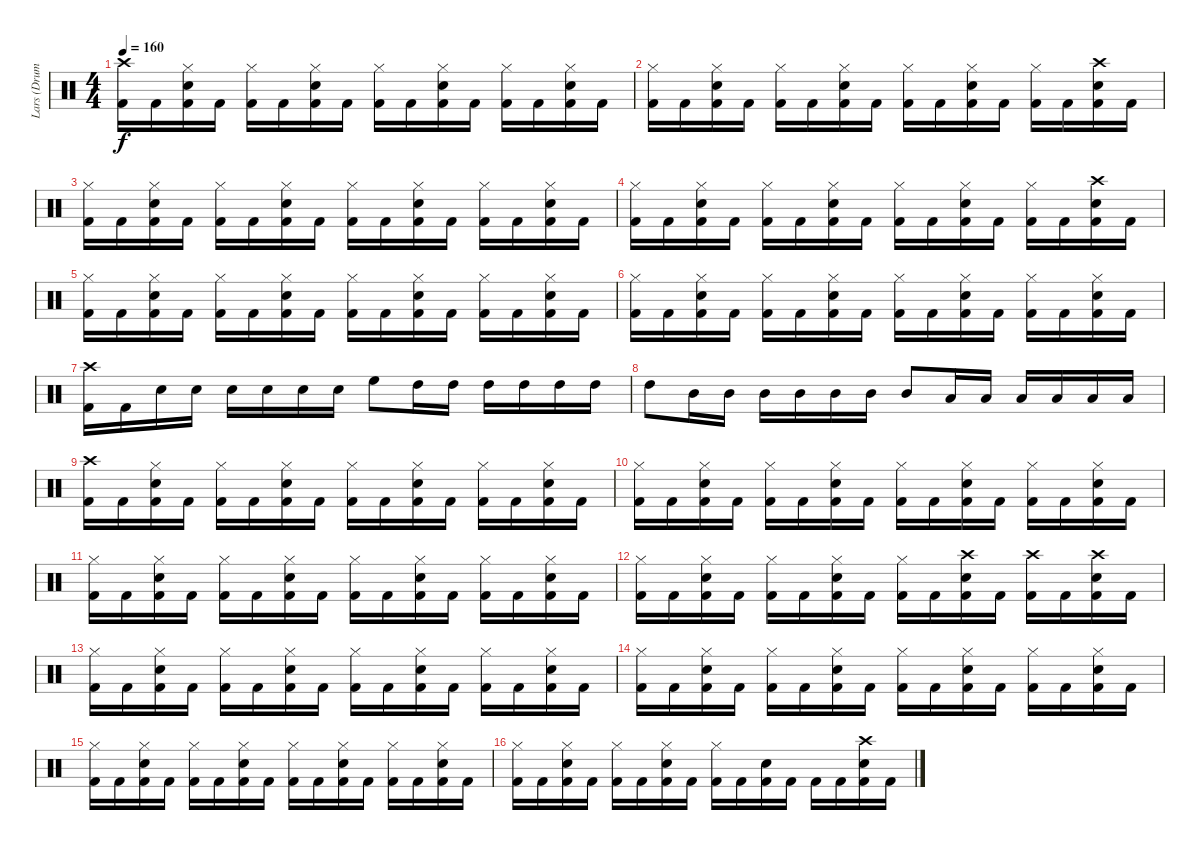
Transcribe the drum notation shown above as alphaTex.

\track ("Lars (Drums)" "Lars (Drum") {instrument percussion}
\staff {score}
\articulation defaults
\ts (4 4)
\tempo 160
\clef neutral
\ks c
("Crash high (hit)" "Kick (hit) 2").16{dy f} "Kick (hit) 2".16 ("Hi-Hat (closed)" "Kick (hit) 2" "Snare (hit) 2").16 "Kick (hit) 2".16 ("Hi-Hat (closed)" "Kick (hit) 2").16 "Kick (hit) 2".16 ("Hi-Hat (closed)" "Kick (hit) 2" "Snare (hit) 2").16 "Kick (hit) 2".16 ("Hi-Hat (closed)" "Kick (hit) 2").16 "Kick (hit) 2".16 ("Hi-Hat (closed)" "Kick (hit) 2" "Snare (hit) 2").16 "Kick (hit) 2".16 ("Hi-Hat (closed)" "Kick (hit) 2").16 "Kick (hit) 2".16 ("Hi-Hat (closed)" "Kick (hit) 2" "Snare (hit) 2").16 "Kick (hit) 2".16 |
("Hi-Hat (closed)" "Kick (hit) 2").16 "Kick (hit) 2".16 ("Hi-Hat (closed)" "Kick (hit) 2" "Snare (hit) 2").16 "Kick (hit) 2".16 ("Hi-Hat (closed)" "Kick (hit) 2").16 "Kick (hit) 2".16 ("Hi-Hat (closed)" "Kick (hit) 2" "Snare (hit) 2").16 "Kick (hit) 2".16 ("Hi-Hat (closed)" "Kick (hit) 2").16 "Kick (hit) 2".16 ("Hi-Hat (closed)" "Kick (hit) 2" "Snare (hit) 2").16 "Kick (hit) 2".16 ("Hi-Hat (closed)" "Kick (hit) 2").16 "Kick (hit) 2".16 ("Crash high (hit)" "Kick (hit) 2" "Snare (hit) 2").16 "Kick (hit) 2".16 |
("Hi-Hat (closed)" "Kick (hit) 2").16 "Kick (hit) 2".16 ("Hi-Hat (closed)" "Kick (hit) 2" "Snare (hit) 2").16 "Kick (hit) 2".16 ("Hi-Hat (closed)" "Kick (hit) 2").16 "Kick (hit) 2".16 ("Hi-Hat (closed)" "Kick (hit) 2" "Snare (hit) 2").16 "Kick (hit) 2".16 ("Hi-Hat (closed)" "Kick (hit) 2").16 "Kick (hit) 2".16 ("Hi-Hat (closed)" "Kick (hit) 2" "Snare (hit) 2").16 "Kick (hit) 2".16 ("Hi-Hat (closed)" "Kick (hit) 2").16 "Kick (hit) 2".16 ("Hi-Hat (closed)" "Kick (hit) 2" "Snare (hit) 2").16 "Kick (hit) 2".16 |
("Hi-Hat (closed)" "Kick (hit) 2").16 "Kick (hit) 2".16 ("Hi-Hat (closed)" "Kick (hit) 2" "Snare (hit) 2").16 "Kick (hit) 2".16 ("Hi-Hat (closed)" "Kick (hit) 2").16 "Kick (hit) 2".16 ("Hi-Hat (closed)" "Kick (hit) 2" "Snare (hit) 2").16 "Kick (hit) 2".16 ("Hi-Hat (closed)" "Kick (hit) 2").16 "Kick (hit) 2".16 ("Hi-Hat (closed)" "Kick (hit) 2" "Snare (hit) 2").16 "Kick (hit) 2".16 ("Hi-Hat (closed)" "Kick (hit) 2").16 "Kick (hit) 2".16 ("Crash high (hit)" "Kick (hit) 2" "Snare (hit) 2").16 "Kick (hit) 2".16 |
("Hi-Hat (closed)" "Kick (hit) 2").16 "Kick (hit) 2".16 ("Hi-Hat (closed)" "Kick (hit) 2" "Snare (hit) 2").16 "Kick (hit) 2".16 ("Hi-Hat (closed)" "Kick (hit) 2").16 "Kick (hit) 2".16 ("Hi-Hat (closed)" "Kick (hit) 2" "Snare (hit) 2").16 "Kick (hit) 2".16 ("Hi-Hat (closed)" "Kick (hit) 2").16 "Kick (hit) 2".16 ("Hi-Hat (closed)" "Kick (hit) 2" "Snare (hit) 2").16 "Kick (hit) 2".16 ("Hi-Hat (closed)" "Kick (hit) 2").16 "Kick (hit) 2".16 ("Hi-Hat (closed)" "Kick (hit) 2" "Snare (hit) 2").16 "Kick (hit) 2".16 |
("Hi-Hat (closed)" "Kick (hit) 2").16 "Kick (hit) 2".16 ("Hi-Hat (closed)" "Kick (hit) 2" "Snare (hit) 2").16 "Kick (hit) 2".16 ("Hi-Hat (closed)" "Kick (hit) 2").16 "Kick (hit) 2".16 ("Hi-Hat (closed)" "Kick (hit) 2" "Snare (hit) 2").16 "Kick (hit) 2".16 ("Hi-Hat (closed)" "Kick (hit) 2").16 "Kick (hit) 2".16 ("Hi-Hat (closed)" "Kick (hit) 2" "Snare (hit) 2").16 "Kick (hit) 2".16 ("Hi-Hat (closed)" "Kick (hit) 2").16 "Kick (hit) 2".16 ("Hi-Hat (closed)" "Kick (hit) 2" "Snare (hit) 2").16 "Kick (hit) 2".16 |
("Crash high (hit)" "Kick (hit) 2").16 "Kick (hit) 2".16 "Snare (hit) 2".16 "Snare (hit) 2".16 "Snare (hit) 2".16 "Snare (hit) 2".16 "Snare (hit) 2".16 "Snare (hit) 2".16 "High Floor Tom (hit)".8 "High Tom (hit)".16 "High Tom (hit)".16 "High Tom (hit)".16 "High Tom (hit)".16 "High Tom (hit)".16 "High Tom (hit)".16 |
"High Tom (hit)".8 "Mid Tom (hit)".16 "Mid Tom (hit)".16 "Mid Tom (hit)".16 "Mid Tom (hit)".16 "Mid Tom (hit)".16 "Mid Tom (hit)".16 "Mid Tom (hit)".8 "Low Tom (hit)".16 "Low Tom (hit)".16 "Low Tom (hit)".16 "Low Tom (hit)".16 "Low Tom (hit)".16 "Low Tom (hit)".16 |
("Crash high (hit)" "Kick (hit) 2").16 "Kick (hit) 2".16 ("Hi-Hat (closed)" "Kick (hit) 2" "Snare (hit) 2").16 "Kick (hit) 2".16 ("Hi-Hat (closed)" "Kick (hit) 2").16 "Kick (hit) 2".16 ("Hi-Hat (closed)" "Kick (hit) 2" "Snare (hit) 2").16 "Kick (hit) 2".16 ("Hi-Hat (closed)" "Kick (hit) 2").16 "Kick (hit) 2".16 ("Hi-Hat (closed)" "Kick (hit) 2" "Snare (hit) 2").16 "Kick (hit) 2".16 ("Hi-Hat (closed)" "Kick (hit) 2").16 "Kick (hit) 2".16 ("Hi-Hat (closed)" "Kick (hit) 2" "Snare (hit) 2").16 "Kick (hit) 2".16 |
("Hi-Hat (closed)" "Kick (hit) 2").16 "Kick (hit) 2".16 ("Hi-Hat (closed)" "Kick (hit) 2" "Snare (hit) 2").16 "Kick (hit) 2".16 ("Hi-Hat (closed)" "Kick (hit) 2").16 "Kick (hit) 2".16 ("Hi-Hat (closed)" "Kick (hit) 2" "Snare (hit) 2").16 "Kick (hit) 2".16 ("Hi-Hat (closed)" "Kick (hit) 2").16 "Kick (hit) 2".16 ("Hi-Hat (closed)" "Kick (hit) 2" "Snare (hit) 2").16 "Kick (hit) 2".16 ("Hi-Hat (closed)" "Kick (hit) 2").16 "Kick (hit) 2".16 ("Hi-Hat (closed)" "Kick (hit) 2" "Snare (hit) 2").16 "Kick (hit) 2".16 |
("Hi-Hat (closed)" "Kick (hit) 2").16 "Kick (hit) 2".16 ("Hi-Hat (closed)" "Kick (hit) 2" "Snare (hit) 2").16 "Kick (hit) 2".16 ("Hi-Hat (closed)" "Kick (hit) 2").16 "Kick (hit) 2".16 ("Hi-Hat (closed)" "Kick (hit) 2" "Snare (hit) 2").16 "Kick (hit) 2".16 ("Hi-Hat (closed)" "Kick (hit) 2").16 "Kick (hit) 2".16 ("Hi-Hat (closed)" "Kick (hit) 2" "Snare (hit) 2").16 "Kick (hit) 2".16 ("Hi-Hat (closed)" "Kick (hit) 2").16 "Kick (hit) 2".16 ("Hi-Hat (closed)" "Kick (hit) 2" "Snare (hit) 2").16 "Kick (hit) 2".16 |
("Hi-Hat (closed)" "Kick (hit) 2").16 "Kick (hit) 2".16 ("Hi-Hat (closed)" "Kick (hit) 2" "Snare (hit) 2").16 "Kick (hit) 2".16 ("Hi-Hat (closed)" "Kick (hit) 2").16 "Kick (hit) 2".16 ("Hi-Hat (closed)" "Kick (hit) 2" "Snare (hit) 2").16 "Kick (hit) 2".16 ("Hi-Hat (closed)" "Kick (hit) 2").16 "Kick (hit) 2".16 ("Crash high (hit)" "Kick (hit) 2" "Snare (hit) 2").16 "Kick (hit) 2".16 ("Crash high (hit)" "Kick (hit) 2").16 "Kick (hit) 2".16 ("Crash high (hit)" "Kick (hit) 2" "Snare (hit) 2").16 "Kick (hit) 2".16 |
("Hi-Hat (closed)" "Kick (hit) 2").16 "Kick (hit) 2".16 ("Hi-Hat (closed)" "Kick (hit) 2" "Snare (hit) 2").16 "Kick (hit) 2".16 ("Hi-Hat (closed)" "Kick (hit) 2").16 "Kick (hit) 2".16 ("Hi-Hat (closed)" "Kick (hit) 2" "Snare (hit) 2").16 "Kick (hit) 2".16 ("Hi-Hat (closed)" "Kick (hit) 2").16 "Kick (hit) 2".16 ("Hi-Hat (closed)" "Kick (hit) 2" "Snare (hit) 2").16 "Kick (hit) 2".16 ("Hi-Hat (closed)" "Kick (hit) 2").16 "Kick (hit) 2".16 ("Hi-Hat (closed)" "Kick (hit) 2" "Snare (hit) 2").16 "Kick (hit) 2".16 |
("Hi-Hat (closed)" "Kick (hit) 2").16 "Kick (hit) 2".16 ("Hi-Hat (closed)" "Kick (hit) 2" "Snare (hit) 2").16 "Kick (hit) 2".16 ("Hi-Hat (closed)" "Kick (hit) 2").16 "Kick (hit) 2".16 ("Hi-Hat (closed)" "Kick (hit) 2" "Snare (hit) 2").16 "Kick (hit) 2".16 ("Hi-Hat (closed)" "Kick (hit) 2").16 "Kick (hit) 2".16 ("Hi-Hat (closed)" "Kick (hit) 2" "Snare (hit) 2").16 "Kick (hit) 2".16 ("Hi-Hat (closed)" "Kick (hit) 2").16 "Kick (hit) 2".16 ("Hi-Hat (closed)" "Kick (hit) 2" "Snare (hit) 2").16 "Kick (hit) 2".16 |
("Hi-Hat (closed)" "Kick (hit) 2").16 "Kick (hit) 2".16 ("Hi-Hat (closed)" "Kick (hit) 2" "Snare (hit) 2").16 "Kick (hit) 2".16 ("Hi-Hat (closed)" "Kick (hit) 2").16 "Kick (hit) 2".16 ("Hi-Hat (closed)" "Kick (hit) 2" "Snare (hit) 2").16 "Kick (hit) 2".16 ("Hi-Hat (closed)" "Kick (hit) 2").16 "Kick (hit) 2".16 ("Hi-Hat (closed)" "Kick (hit) 2" "Snare (hit) 2").16 "Kick (hit) 2".16 ("Hi-Hat (closed)" "Kick (hit) 2").16 "Kick (hit) 2".16 ("Hi-Hat (closed)" "Kick (hit) 2" "Snare (hit) 2").16 "Kick (hit) 2".16 |
("Hi-Hat (closed)" "Kick (hit) 2").16 "Kick (hit) 2".16 ("Hi-Hat (closed)" "Kick (hit) 2" "Snare (hit) 2").16 "Kick (hit) 2".16 ("Hi-Hat (closed)" "Kick (hit) 2").16 "Kick (hit) 2".16 ("Hi-Hat (closed)" "Kick (hit) 2" "Snare (hit) 2").16 "Kick (hit) 2".16 ("Hi-Hat (closed)" "Kick (hit) 2").16 "Kick (hit) 2".16 ("Kick (hit) 2" "Snare (hit) 2").16 "Kick (hit) 2".16 "Kick (hit) 2".16 "Kick (hit) 2".16 ("Crash high (hit)" "Kick (hit) 2" "Snare (hit) 2").16 "Kick (hit) 2".16
